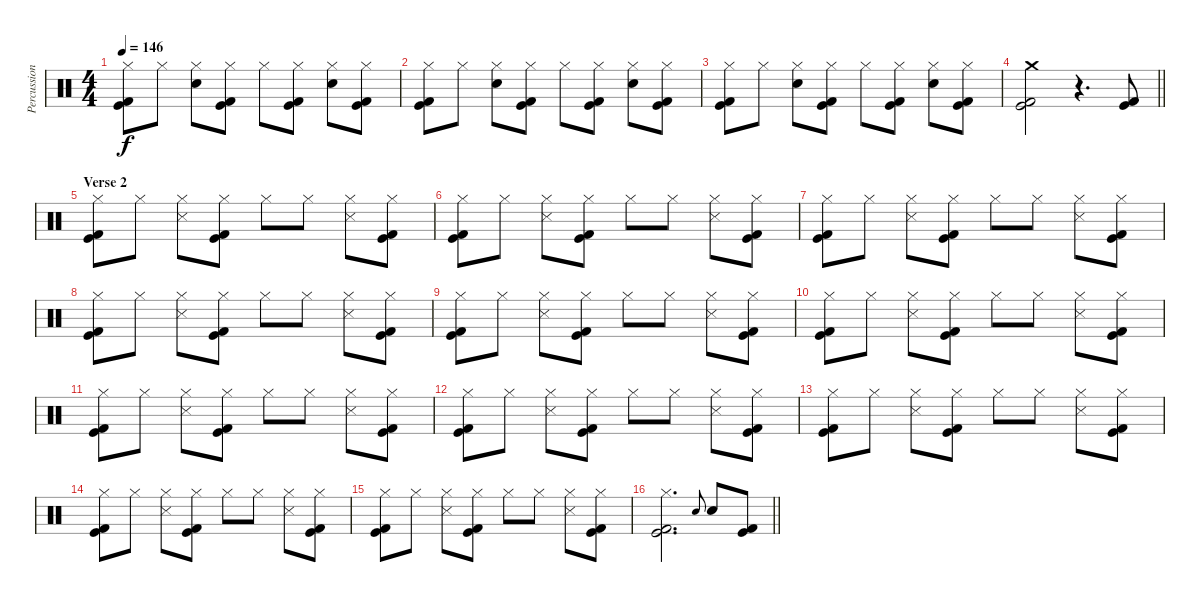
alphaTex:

\track ("Percussion" "Percussion") {instrument percussion}
\staff {score}
\articulation defaults
\ts (4 4)
\tempo 146
\clef neutral
\ks c
("Hi-Hat (closed)" "Kick (hit)" "Kick (hit) 2").8{dy f} "Hi-Hat (closed)".8 ("Hi-Hat (closed)" "Electric Snare (hit)").8 ("Hi-Hat (closed)" "Kick (hit)" "Kick (hit) 2").8 "Hi-Hat (closed)".8 ("Hi-Hat (closed)" "Kick (hit)" "Kick (hit) 2").8 ("Hi-Hat (closed)" "Electric Snare (hit)").8 ("Hi-Hat (closed)" "Kick (hit)" "Kick (hit) 2").8 |
("Hi-Hat (closed)" "Kick (hit)" "Kick (hit) 2").8 "Hi-Hat (closed)".8 ("Hi-Hat (closed)" "Electric Snare (hit)").8 ("Hi-Hat (closed)" "Kick (hit)" "Kick (hit) 2").8 "Hi-Hat (closed)".8 ("Hi-Hat (closed)" "Kick (hit)" "Kick (hit) 2").8 ("Hi-Hat (closed)" "Electric Snare (hit)").8 ("Hi-Hat (closed)" "Kick (hit)" "Kick (hit) 2").8 |
("Hi-Hat (closed)" "Kick (hit)" "Kick (hit) 2").8 "Hi-Hat (closed)".8 ("Hi-Hat (closed)" "Electric Snare (hit)").8 ("Hi-Hat (closed)" "Kick (hit)" "Kick (hit) 2").8 "Hi-Hat (closed)".8 ("Hi-Hat (closed)" "Kick (hit)" "Kick (hit) 2").8 ("Hi-Hat (closed)" "Electric Snare (hit)").8 ("Hi-Hat (closed)" "Kick (hit)" "Kick (hit) 2").8 |
\barLineRight lightlight
("Crash medium (hit)" "Kick (hit)" "Kick (hit) 2").2 r.4{d} ("Kick (hit)" "Kick (hit) 2").8 |
\section ("" "Verse 2")
("Hi-Hat (closed)" "Kick (hit)" "Kick (hit) 2").8 "Hi-Hat (closed)".8 ("Hi-Hat (closed)" "Snare (side stick) 3").8 ("Hi-Hat (closed)" "Kick (hit)" "Kick (hit) 2").8 "Hi-Hat (closed)".8 "Hi-Hat (closed)".8 ("Hi-Hat (closed)" "Snare (side stick) 3").8 ("Hi-Hat (closed)" "Kick (hit)" "Kick (hit) 2").8 |
("Hi-Hat (closed)" "Kick (hit)" "Kick (hit) 2").8 "Hi-Hat (closed)".8 ("Hi-Hat (closed)" "Snare (side stick) 3").8 ("Hi-Hat (closed)" "Kick (hit)" "Kick (hit) 2").8 "Hi-Hat (closed)".8 "Hi-Hat (closed)".8 ("Hi-Hat (closed)" "Snare (side stick) 3").8 ("Hi-Hat (closed)" "Kick (hit)" "Kick (hit) 2").8 |
("Hi-Hat (closed)" "Kick (hit)" "Kick (hit) 2").8 "Hi-Hat (closed)".8 ("Hi-Hat (closed)" "Snare (side stick) 3").8 ("Hi-Hat (closed)" "Kick (hit)" "Kick (hit) 2").8 "Hi-Hat (closed)".8 "Hi-Hat (closed)".8 ("Hi-Hat (closed)" "Snare (side stick) 3").8 ("Hi-Hat (closed)" "Kick (hit)" "Kick (hit) 2").8 |
("Hi-Hat (closed)" "Kick (hit)" "Kick (hit) 2").8 "Hi-Hat (closed)".8 ("Hi-Hat (closed)" "Snare (side stick) 3").8 ("Hi-Hat (closed)" "Kick (hit)" "Kick (hit) 2").8 "Hi-Hat (closed)".8 "Hi-Hat (closed)".8 ("Hi-Hat (closed)" "Snare (side stick) 3").8 ("Hi-Hat (closed)" "Kick (hit)" "Kick (hit) 2").8 |
("Hi-Hat (closed)" "Kick (hit)" "Kick (hit) 2").8 "Hi-Hat (closed)".8 ("Hi-Hat (closed)" "Snare (side stick) 3").8 ("Hi-Hat (closed)" "Kick (hit)" "Kick (hit) 2").8 "Hi-Hat (closed)".8 "Hi-Hat (closed)".8 ("Hi-Hat (closed)" "Snare (side stick) 3").8 ("Hi-Hat (closed)" "Kick (hit)" "Kick (hit) 2").8 |
("Hi-Hat (closed)" "Kick (hit)" "Kick (hit) 2").8 "Hi-Hat (closed)".8 ("Hi-Hat (closed)" "Snare (side stick) 3").8 ("Hi-Hat (closed)" "Kick (hit)" "Kick (hit) 2").8 "Hi-Hat (closed)".8 "Hi-Hat (closed)".8 ("Hi-Hat (closed)" "Snare (side stick) 3").8 ("Hi-Hat (closed)" "Kick (hit)" "Kick (hit) 2").8 |
("Hi-Hat (closed)" "Kick (hit)" "Kick (hit) 2").8 "Hi-Hat (closed)".8 ("Hi-Hat (closed)" "Snare (side stick) 3").8 ("Hi-Hat (closed)" "Kick (hit)" "Kick (hit) 2").8 "Hi-Hat (closed)".8 "Hi-Hat (closed)".8 ("Hi-Hat (closed)" "Snare (side stick) 3").8 ("Hi-Hat (closed)" "Kick (hit)" "Kick (hit) 2").8 |
("Hi-Hat (closed)" "Kick (hit)" "Kick (hit) 2").8 "Hi-Hat (closed)".8 ("Hi-Hat (closed)" "Snare (side stick) 3").8 ("Hi-Hat (closed)" "Kick (hit)" "Kick (hit) 2").8 "Hi-Hat (closed)".8 "Hi-Hat (closed)".8 ("Hi-Hat (closed)" "Snare (side stick) 3").8 ("Hi-Hat (closed)" "Kick (hit)" "Kick (hit) 2").8 |
("Hi-Hat (closed)" "Kick (hit)" "Kick (hit) 2").8 "Hi-Hat (closed)".8 ("Hi-Hat (closed)" "Snare (side stick) 3").8 ("Hi-Hat (closed)" "Kick (hit)" "Kick (hit) 2").8 "Hi-Hat (closed)".8 "Hi-Hat (closed)".8 ("Hi-Hat (closed)" "Snare (side stick) 3").8 ("Hi-Hat (closed)" "Kick (hit)" "Kick (hit) 2").8 |
("Hi-Hat (closed)" "Kick (hit)" "Kick (hit) 2").8 "Hi-Hat (closed)".8 ("Hi-Hat (closed)" "Snare (side stick) 3").8 ("Hi-Hat (closed)" "Kick (hit)" "Kick (hit) 2").8 "Hi-Hat (closed)".8 "Hi-Hat (closed)".8 ("Hi-Hat (closed)" "Snare (side stick) 3").8 ("Hi-Hat (closed)" "Kick (hit)" "Kick (hit) 2").8 |
("Hi-Hat (closed)" "Kick (hit)" "Kick (hit) 2").8 "Hi-Hat (closed)".8 ("Hi-Hat (closed)" "Snare (side stick) 3").8 ("Hi-Hat (closed)" "Kick (hit)" "Kick (hit) 2").8 "Hi-Hat (closed)".8 "Hi-Hat (closed)".8 ("Hi-Hat (closed)" "Snare (side stick) 3").8 ("Hi-Hat (closed)" "Kick (hit)" "Kick (hit) 2").8 |
\barLineRight lightlight
("Hi-Hat (closed)" "Kick (hit)" "Kick (hit) 2").2{d} "Electric Snare (hit)".8{gr onbeat} "Electric Snare (hit)".8 ("Kick (hit)" "Kick (hit) 2").8
